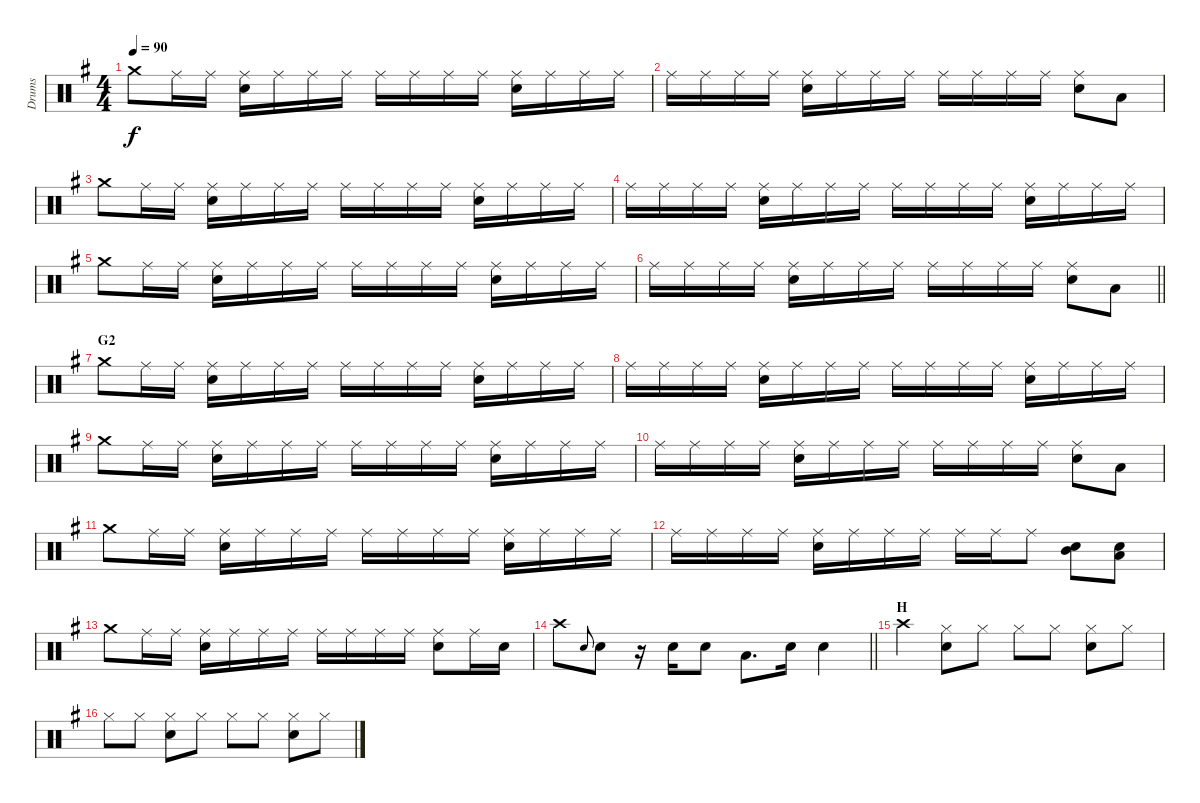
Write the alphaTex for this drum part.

\track ("Drums" "Drums") {instrument percussion}
\staff {score}
\articulation defaults
\ts (4 4)
\tempo 90
\clef neutral
\ks g "Crash medium (hit)".8{dy f} "Ride (middle)".16 "Ride (middle)".16
("Ride (middle)" "Snare (hit) 2").16 "Ride (middle)".16 "Ride (middle)".16 "Ride (middle)".16 "Ride (middle)".16 "Ride (middle)".16 "Ride (middle)".16 "Ride (middle)".16 ("Ride (middle)" "Snare (hit) 2").16 "Ride (middle)".16 "Ride (middle)".16 "Ride (middle)".16 |
"Ride (middle)".16 "Ride (middle)".16 "Ride (middle)".16 "Ride (middle)".16 ("Ride (middle)" "Snare (hit) 2").16 "Ride (middle)".16 "Ride (middle)".16 "Ride (middle)".16 "Ride (middle)".16 "Ride (middle)".16 "Ride (middle)".16 "Ride (middle)".16 ("Ride (middle)" "Snare (hit) 2").8 "Low Tom (hit)".8 |
"Crash medium (hit)".8 "Ride (middle)".16 "Ride (middle)".16 ("Ride (middle)" "Snare (hit) 2").16 "Ride (middle)".16 "Ride (middle)".16 "Ride (middle)".16 "Ride (middle)".16 "Ride (middle)".16 "Ride (middle)".16 "Ride (middle)".16 ("Ride (middle)" "Snare (hit) 2").16 "Ride (middle)".16 "Ride (middle)".16 "Ride (middle)".16 |
"Ride (middle)".16 "Ride (middle)".16 "Ride (middle)".16 "Ride (middle)".16 ("Ride (middle)" "Snare (hit) 2").16 "Ride (middle)".16 "Ride (middle)".16 "Ride (middle)".16 "Ride (middle)".16 "Ride (middle)".16 "Ride (middle)".16 "Ride (middle)".16 ("Ride (middle)" "Snare (hit) 2").16 "Ride (middle)".16 "Ride (middle)".16 "Ride (middle)".16 |
"Crash medium (hit)".8 "Ride (middle)".16 "Ride (middle)".16 ("Ride (middle)" "Snare (hit) 2").16 "Ride (middle)".16 "Ride (middle)".16 "Ride (middle)".16 "Ride (middle)".16 "Ride (middle)".16 "Ride (middle)".16 "Ride (middle)".16 ("Ride (middle)" "Snare (hit) 2").16 "Ride (middle)".16 "Ride (middle)".16 "Ride (middle)".16 |
\barLineRight lightlight "Ride (middle)".16 "Ride (middle)".16 "Ride (middle)".16 "Ride (middle)".16
("Ride (middle)" "Snare (hit) 2").16 "Ride (middle)".16 "Ride (middle)".16 "Ride (middle)".16 "Ride (middle)".16 "Ride (middle)".16 "Ride (middle)".16 "Ride (middle)".16 ("Ride (middle)" "Snare (hit) 2").8 "Low Tom (hit)".8 |
\section ("" "G2")
"Crash medium (hit)".8 "Ride (middle)".16 "Ride (middle)".16 ("Ride (middle)" "Snare (hit) 2").16 "Ride (middle)".16 "Ride (middle)".16 "Ride (middle)".16 "Ride (middle)".16 "Ride (middle)".16 "Ride (middle)".16 "Ride (middle)".16 ("Ride (middle)" "Snare (hit) 2").16 "Ride (middle)".16 "Ride (middle)".16 "Ride (middle)".16 |
"Ride (middle)".16 "Ride (middle)".16 "Ride (middle)".16 "Ride (middle)".16 ("Ride (middle)" "Snare (hit) 2").16 "Ride (middle)".16 "Ride (middle)".16 "Ride (middle)".16 "Ride (middle)".16 "Ride (middle)".16 "Ride (middle)".16 "Ride (middle)".16 ("Ride (middle)" "Snare (hit) 2").16 "Ride (middle)".16 "Ride (middle)".16 "Ride (middle)".16 |
"Crash medium (hit)".8 "Ride (middle)".16 "Ride (middle)".16 ("Ride (middle)" "Snare (hit) 2").16 "Ride (middle)".16 "Ride (middle)".16 "Ride (middle)".16 "Ride (middle)".16 "Ride (middle)".16 "Ride (middle)".16 "Ride (middle)".16 ("Ride (middle)" "Snare (hit) 2").16 "Ride (middle)".16 "Ride (middle)".16 "Ride (middle)".16 |
"Ride (middle)".16 "Ride (middle)".16 "Ride (middle)".16 "Ride (middle)".16 ("Ride (middle)" "Snare (hit) 2").16 "Ride (middle)".16 "Ride (middle)".16 "Ride (middle)".16 "Ride (middle)".16 "Ride (middle)".16 "Ride (middle)".16 "Ride (middle)".16 ("Ride (middle)" "Snare (hit) 2").8 "Low Tom (hit)".8 |
"Crash medium (hit)".8 "Ride (middle)".16 "Ride (middle)".16 ("Ride (middle)" "Snare (hit) 2").16 "Ride (middle)".16 "Ride (middle)".16 "Ride (middle)".16 "Ride (middle)".16 "Ride (middle)".16 "Ride (middle)".16 "Ride (middle)".16 ("Ride (middle)" "Snare (hit) 2").16 "Ride (middle)".16 "Ride (middle)".16 "Ride (middle)".16 |
"Ride (middle)".16 "Ride (middle)".16 "Ride (middle)".16 "Ride (middle)".16 ("Ride (middle)" "Snare (hit) 2").16 "Ride (middle)".16 "Ride (middle)".16 "Ride (middle)".16 "Ride (middle)".16 "Ride (middle)".16 "Ride (middle)".8 ("Mid Tom (hit)" "Snare (hit) 2").8 ("Low Tom (hit)" "Snare (hit) 2").8 |
"Crash medium (hit)".8 "Ride (middle)".16 "Ride (middle)".16 ("Ride (middle)" "Snare (hit) 2").16 "Ride (middle)".16 "Ride (middle)".16 "Ride (middle)".16 "Ride (middle)".16 "Ride (middle)".16 "Ride (middle)".16 "Ride (middle)".16 ("Ride (middle)" "Snare (hit) 2").8 "Ride (middle)".16 "Snare (hit) 2".16 |
\barLineRight lightlight "Crash high (hit)".8 "Snare (hit) 2".8{gr onbeat} "Snare (hit) 2".8
r.16 "Snare (hit) 2".16 "Snare (hit) 2".8 "Low Tom (hit)".8{d} "Snare (hit) 2".16 "Snare (hit) 2".4 |
\section ("" "H")
"Crash high (hit)".4 ("Hi-Hat (closed)" "Snare (hit) 2").8 "Hi-Hat (closed)".8 "Hi-Hat (closed)".8 "Hi-Hat (closed)".8 ("Hi-Hat (closed)" "Snare (hit) 2").8 "Hi-Hat (closed)".8 |
"Hi-Hat (closed)".8 "Hi-Hat (closed)".8 ("Hi-Hat (closed)" "Snare (hit) 2").8 "Hi-Hat (closed)".8 "Hi-Hat (closed)".8 "Hi-Hat (closed)".8 ("Hi-Hat (closed)" "Snare (hit) 2").8 "Hi-Hat (closed)".8
